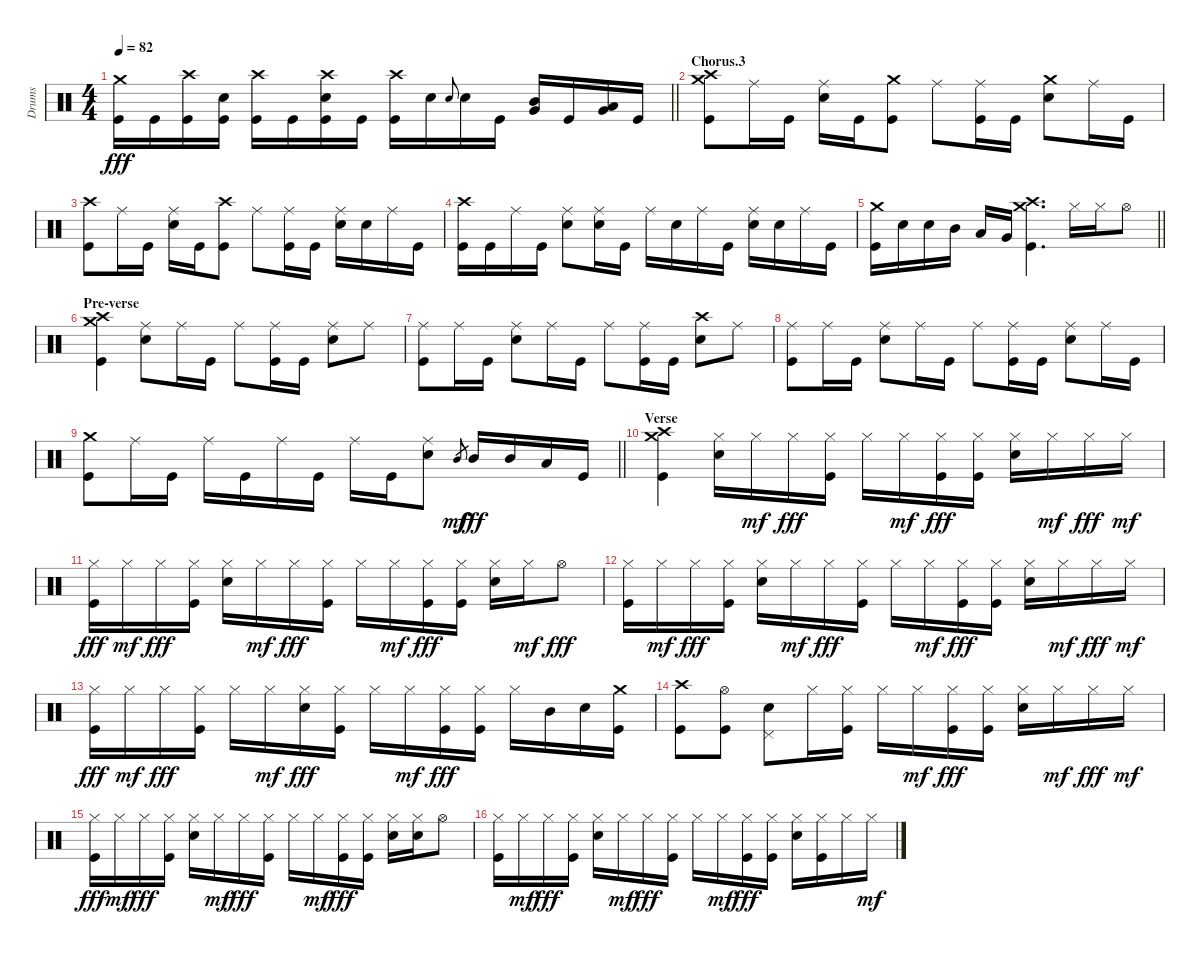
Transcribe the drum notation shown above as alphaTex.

\track ("Drums" "Drums") {instrument percussion}
\staff {score}
\articulation defaults
\ts (4 4)
\tempo 82
\clef neutral
\barLineRight lightlight
\ks c
("Crash medium (hit)" "Kick (hit)").16{dy fff} "Kick (hit)".16 ("Crash high (hit)" "Kick (hit)").16 ("Snare (hit) 2" "Kick (hit)").16 ("Crash high (hit)" "Kick (hit)").16 "Kick (hit)".16 ("Crash high (hit)" "Snare (hit) 2" "Kick (hit)").16 "Kick (hit)".16 ("Crash high (hit)" "Kick (hit)").16 "Snare (hit) 2".16 "Snare (hit) 2".8{gr onbeat} "Snare (hit) 2".16 "Kick (hit)".16 ("Mid Tom (hit)" "Very Low Tom (hit)").16 "Kick (hit)".16 ("Low Tom (hit)" "Very Low Tom (hit)").16 "Kick (hit)".16 |
\section ("" "Chorus.3")
("Crash medium (hit)" "Crash high (hit)" "Kick (hit)").8 "Ride (middle)".16 "Kick (hit)".16 ("Ride (middle)" "Snare (hit) 2").16 "Kick (hit)".16 ("Crash medium (hit)" "Kick (hit)").8 "Ride (middle)".8 ("Ride (middle)" "Kick (hit)").16 "Kick (hit)".16 ("Crash medium (hit)" "Snare (hit) 2").8 "Ride (middle)".16 "Kick (hit)".16 |
("Crash high (hit)" "Kick (hit)").8 "Ride (middle)".16 "Kick (hit)".16 ("Ride (middle)" "Snare (hit) 2").16 "Kick (hit)".16 ("Crash high (hit)" "Kick (hit)").8 "Ride (middle)".8 ("Ride (middle)" "Kick (hit)").16 "Kick (hit)".16 ("Ride (middle)" "Snare (hit) 2").16 "Snare (hit) 2".16 "Ride (middle)".16 "Kick (hit)".16 |
("Crash high (hit)" "Kick (hit)").16 "Kick (hit)".16 "Ride (middle)".16 "Kick (hit)".16 ("Ride (middle)" "Snare (hit) 2").8 ("Ride (middle)" "Snare (hit) 2").16 "Kick (hit)".16 "Ride (middle)".16 "Snare (hit) 2".16 "Ride (middle)".16 "Kick (hit)".16 ("Ride (middle)" "Snare (hit) 2").16 "Snare (hit) 2".16 "Ride (middle)".16 "Kick (hit)".16 |
\barLineRight lightlight
("Crash medium (hit)" "Kick (hit)").16 "Snare (hit) 2".16 "Snare (hit) 2".16 "Mid Tom (hit)".16 "Low Tom (hit)".16 "Very Low Tom (hit)".16 ("Crash medium (hit)" "Crash high (hit)" "Kick (hit)").4{d} "Hi-Hat (closed)".16 "Hi-Hat (closed)".16 "Hi-Hat (open)".8 |
\section ("" "Pre-verse")
("Crash medium (hit)" "Crash high (hit)" "Kick (hit)").4 ("Ride (middle)" "Snare (hit) 2").8 "Ride (middle)".16 "Kick (hit)".16 "Ride (middle)".8 ("Ride (middle)" "Kick (hit)").16 "Kick (hit)".16 ("Ride (middle)" "Snare (hit) 2").8 "Ride (middle)".8 |
("Ride (middle)" "Kick (hit)").8 "Ride (middle)".16 "Kick (hit)".16 ("Ride (middle)" "Snare (hit) 2").8 "Ride (middle)".16 "Kick (hit)".16 "Ride (middle)".8 ("Ride (middle)" "Kick (hit)").16 "Kick (hit)".16 ("Crash high (hit)" "Snare (hit) 2").8 "Ride (middle)".8 |
("Ride (middle)" "Kick (hit)").8 "Ride (middle)".16 "Kick (hit)".16 ("Ride (middle)" "Snare (hit) 2").8 "Ride (middle)".16 "Kick (hit)".16 "Ride (middle)".8 ("Ride (middle)" "Kick (hit)").16 "Kick (hit)".16 ("Ride (middle)" "Snare (hit) 2").8 "Ride (middle)".16 "Kick (hit)".16 |
\barLineRight lightlight
("Crash medium (hit)" "Kick (hit)").8 "Ride (middle)".16 "Kick (hit)".16 "Ride (middle)".16 "Kick (hit)".16 "Ride (middle)".16 "Kick (hit)".16 "Ride (middle)".16 "Kick (hit)".16 ("Ride (middle)" "Snare (hit) 2").8 "Mid Tom (hit)".8{gr dy mf} "Mid Tom (hit)".16{dy fff} "Mid Tom (hit)".16 "Low Tom (hit)".16 "Kick (hit)".16 |
\section ("" "Verse")
("Crash medium (hit)" "Crash high (hit)" "Kick (hit)").4 ("Hi-Hat (closed)" "Snare (hit) 2").16 "Hi-Hat (closed)".16{dy mf} "Hi-Hat (closed)".16{dy fff} ("Hi-Hat (closed)" "Kick (hit)").16 "Hi-Hat (closed)".16 "Hi-Hat (closed)".16{dy mf} ("Hi-Hat (closed)" "Kick (hit)").16{dy fff} ("Hi-Hat (closed)" "Kick (hit)").16 ("Hi-Hat (closed)" "Snare (hit) 2").16 "Hi-Hat (closed)".16{dy mf} "Hi-Hat (closed)".16{dy fff} "Hi-Hat (closed)".16{dy mf} |
("Hi-Hat (closed)" "Kick (hit)").16{dy fff} "Hi-Hat (closed)".16{dy mf} "Hi-Hat (closed)".16{dy fff} ("Hi-Hat (closed)" "Kick (hit)").16 ("Hi-Hat (closed)" "Snare (hit) 2").16 "Hi-Hat (closed)".16{dy mf} "Hi-Hat (closed)".16{dy fff} ("Hi-Hat (closed)" "Kick (hit)").16 "Hi-Hat (closed)".16 "Hi-Hat (closed)".16{dy mf} ("Hi-Hat (closed)" "Kick (hit)").16{dy fff} ("Hi-Hat (closed)" "Kick (hit)").16 ("Hi-Hat (closed)" "Snare (hit) 2").16 "Hi-Hat (closed)".16{dy mf} "Hi-Hat (open)".8{dy fff} |
("Hi-Hat (closed)" "Kick (hit)").16 "Hi-Hat (closed)".16{dy mf} "Hi-Hat (closed)".16{dy fff} ("Hi-Hat (closed)" "Kick (hit)").16 ("Hi-Hat (closed)" "Snare (hit) 2").16 "Hi-Hat (closed)".16{dy mf} "Hi-Hat (closed)".16{dy fff} ("Hi-Hat (closed)" "Kick (hit)").16 "Hi-Hat (closed)".16 "Hi-Hat (closed)".16{dy mf} ("Hi-Hat (closed)" "Kick (hit)").16{dy fff} ("Hi-Hat (closed)" "Kick (hit)").16 ("Hi-Hat (closed)" "Snare (hit) 2").16 "Hi-Hat (closed)".16{dy mf} "Hi-Hat (closed)".16{dy fff} "Hi-Hat (closed)".16{dy mf} |
("Hi-Hat (closed)" "Kick (hit)").16{dy fff} "Hi-Hat (closed)".16{dy mf} "Hi-Hat (closed)".16{dy fff} ("Hi-Hat (closed)" "Kick (hit)").16 "Hi-Hat (closed)".16 "Hi-Hat (closed)".16{dy mf} ("Hi-Hat (closed)" "Snare (hit) 2").16{dy fff} ("Hi-Hat (closed)" "Kick (hit)").16 "Hi-Hat (closed)".16 "Hi-Hat (closed)".16{dy mf} ("Hi-Hat (closed)" "Kick (hit)").16{dy fff} ("Hi-Hat (closed)" "Kick (hit)").16 "Hi-Hat (closed)".16 "Mid Tom (hit)".16 "Snare (hit) 2".16 ("Crash medium (hit)" "Kick (hit)").16 |
("Crash high (hit)" "Kick (hit)").8 ("Hi-Hat (open)" "Kick (hit)").8 ("Pedal Hi-Hat (hit)" "Snare (hit) 2").8 "Hi-Hat (closed)".16 ("Hi-Hat (closed)" "Kick (hit)").16 "Hi-Hat (closed)".16 "Hi-Hat (closed)".16{dy mf} ("Hi-Hat (closed)" "Kick (hit)").16{dy fff} ("Hi-Hat (closed)" "Kick (hit)").16 ("Hi-Hat (closed)" "Snare (hit) 2").16 "Hi-Hat (closed)".16{dy mf} "Hi-Hat (closed)".16{dy fff} "Hi-Hat (closed)".16{dy mf} |
("Hi-Hat (closed)" "Kick (hit)").16{dy fff} "Hi-Hat (closed)".16{dy mf} "Hi-Hat (closed)".16{dy fff} ("Hi-Hat (closed)" "Kick (hit)").16 ("Hi-Hat (closed)" "Snare (hit) 2").16 "Hi-Hat (closed)".16{dy mf} "Hi-Hat (closed)".16{dy fff} ("Hi-Hat (closed)" "Kick (hit)").16 "Hi-Hat (closed)".16 "Hi-Hat (closed)".16{dy mf} ("Hi-Hat (closed)" "Kick (hit)").16{dy fff} ("Hi-Hat (closed)" "Kick (hit)").16 ("Hi-Hat (closed)" "Snare (hit) 2").16 ("Hi-Hat (closed)" "Snare (hit) 2").16 "Hi-Hat (open)".8 |
("Hi-Hat (closed)" "Kick (hit)").16 "Hi-Hat (closed)".16{dy mf} "Hi-Hat (closed)".16{dy fff} ("Hi-Hat (closed)" "Kick (hit)").16 ("Hi-Hat (closed)" "Snare (hit) 2").16 "Hi-Hat (closed)".16{dy mf} "Hi-Hat (closed)".16{dy fff} ("Hi-Hat (closed)" "Kick (hit)").16 "Hi-Hat (closed)".16 "Hi-Hat (closed)".16{dy mf} ("Hi-Hat (closed)" "Kick (hit)").16{dy fff} ("Hi-Hat (closed)" "Kick (hit)").16 ("Hi-Hat (closed)" "Snare (hit) 2").16 ("Hi-Hat (closed)" "Kick (hit)").16 "Hi-Hat (closed)".16 "Hi-Hat (closed)".16{dy mf}
